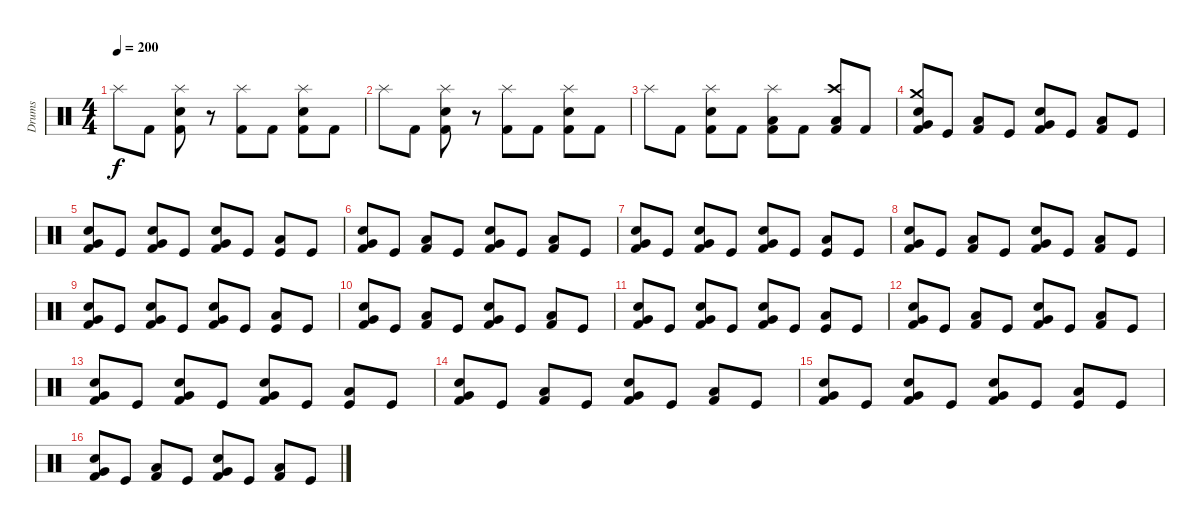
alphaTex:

\track ("Drums" "Drums") {instrument percussion}
\staff {score}
\articulation defaults
\ts (4 4)
\tempo 200
\clef neutral
\ks c "Splash (hit)".8{dy f} "Kick (hit) 2".8
("Splash (hit)" "Snare (hit) 2" "Kick (hit) 2").8 r.8 ("Splash (hit)" "Kick (hit) 2").8 "Kick (hit) 2".8 ("Splash (hit)" "Snare (hit) 2" "Kick (hit) 2").8 "Kick (hit) 2".8 |
"Splash (hit)".8 "Kick (hit) 2".8 ("Splash (hit)" "Snare (hit) 2" "Kick (hit) 2").8 r.8 ("Splash (hit)" "Kick (hit) 2").8 "Kick (hit) 2".8 ("Splash (hit)" "Snare (hit) 2" "Kick (hit) 2").8 "Kick (hit) 2".8 |
"Splash (hit)".8 "Kick (hit) 2".8 ("Splash (hit)" "Snare (hit) 2" "Kick (hit) 2").8 "Kick (hit) 2".8 ("Splash (hit)" "Low Tom (hit)" "Kick (hit) 2").8 "Kick (hit) 2".8 ("Crash high (hit)" "Low Floor Tom (hit)" "Kick (hit) 2").8 "Kick (hit) 2".8 |
("Crash medium (hit)" "Snare (hit) 2" "Very Low Tom (hit)" "Kick (hit) 2").8 "Kick (hit)".8 ("Low Floor Tom (hit)" "Kick (hit) 2").8 "Kick (hit)".8 ("Snare (hit) 2" "Very Low Tom (hit)" "Kick (hit) 2").8 "Kick (hit)".8 ("Low Floor Tom (hit)" "Kick (hit) 2").8 "Kick (hit)".8 |
("Snare (hit) 2" "Very Low Tom (hit)" "Kick (hit) 2").8 "Kick (hit)".8 ("Snare (hit) 2" "Very Low Tom (hit)" "Kick (hit) 2").8 "Kick (hit)".8 ("Snare (hit) 2" "Very Low Tom (hit)" "Kick (hit) 2").8 "Kick (hit)".8 ("Low Floor Tom (hit)" "Kick (hit)").8 "Kick (hit)".8 |
("Snare (hit) 2" "Very Low Tom (hit)" "Kick (hit) 2").8 "Kick (hit)".8 ("Low Floor Tom (hit)" "Kick (hit) 2").8 "Kick (hit)".8 ("Snare (hit) 2" "Very Low Tom (hit)" "Kick (hit) 2").8 "Kick (hit)".8 ("Low Floor Tom (hit)" "Kick (hit) 2").8 "Kick (hit)".8 |
("Snare (hit) 2" "Very Low Tom (hit)" "Kick (hit) 2").8 "Kick (hit)".8 ("Snare (hit) 2" "Very Low Tom (hit)" "Kick (hit) 2").8 "Kick (hit)".8 ("Snare (hit) 2" "Very Low Tom (hit)" "Kick (hit) 2").8 "Kick (hit)".8 ("Low Floor Tom (hit)" "Kick (hit)").8 "Kick (hit)".8 |
("Snare (hit) 2" "Very Low Tom (hit)" "Kick (hit) 2").8 "Kick (hit)".8 ("Low Floor Tom (hit)" "Kick (hit) 2").8 "Kick (hit)".8 ("Snare (hit) 2" "Very Low Tom (hit)" "Kick (hit) 2").8 "Kick (hit)".8 ("Low Floor Tom (hit)" "Kick (hit) 2").8 "Kick (hit)".8 |
("Snare (hit) 2" "Very Low Tom (hit)" "Kick (hit) 2").8 "Kick (hit)".8 ("Snare (hit) 2" "Very Low Tom (hit)" "Kick (hit) 2").8 "Kick (hit)".8 ("Snare (hit) 2" "Very Low Tom (hit)" "Kick (hit) 2").8 "Kick (hit)".8 ("Low Floor Tom (hit)" "Kick (hit)").8 "Kick (hit)".8 |
("Snare (hit) 2" "Very Low Tom (hit)" "Kick (hit) 2").8 "Kick (hit)".8 ("Low Floor Tom (hit)" "Kick (hit) 2").8 "Kick (hit)".8 ("Snare (hit) 2" "Very Low Tom (hit)" "Kick (hit) 2").8 "Kick (hit)".8 ("Low Floor Tom (hit)" "Kick (hit) 2").8 "Kick (hit)".8 |
("Snare (hit) 2" "Very Low Tom (hit)" "Kick (hit) 2").8 "Kick (hit)".8 ("Snare (hit) 2" "Very Low Tom (hit)" "Kick (hit) 2").8 "Kick (hit)".8 ("Snare (hit) 2" "Very Low Tom (hit)" "Kick (hit) 2").8 "Kick (hit)".8 ("Low Floor Tom (hit)" "Kick (hit)").8 "Kick (hit)".8 |
("Snare (hit) 2" "Very Low Tom (hit)" "Kick (hit) 2").8 "Kick (hit)".8 ("Low Floor Tom (hit)" "Kick (hit) 2").8 "Kick (hit)".8 ("Snare (hit) 2" "Very Low Tom (hit)" "Kick (hit) 2").8 "Kick (hit)".8 ("Low Floor Tom (hit)" "Kick (hit) 2").8 "Kick (hit)".8 |
("Snare (hit) 2" "Very Low Tom (hit)" "Kick (hit) 2").8 "Kick (hit)".8 ("Snare (hit) 2" "Very Low Tom (hit)" "Kick (hit) 2").8 "Kick (hit)".8 ("Snare (hit) 2" "Very Low Tom (hit)" "Kick (hit) 2").8 "Kick (hit)".8 ("Low Floor Tom (hit)" "Kick (hit)").8 "Kick (hit)".8 |
("Snare (hit) 2" "Very Low Tom (hit)" "Kick (hit) 2").8 "Kick (hit)".8 ("Low Floor Tom (hit)" "Kick (hit) 2").8 "Kick (hit)".8 ("Snare (hit) 2" "Very Low Tom (hit)" "Kick (hit) 2").8 "Kick (hit)".8 ("Low Floor Tom (hit)" "Kick (hit) 2").8 "Kick (hit)".8 |
("Snare (hit) 2" "Very Low Tom (hit)" "Kick (hit) 2").8 "Kick (hit)".8 ("Snare (hit) 2" "Very Low Tom (hit)" "Kick (hit) 2").8 "Kick (hit)".8 ("Snare (hit) 2" "Very Low Tom (hit)" "Kick (hit) 2").8 "Kick (hit)".8 ("Low Floor Tom (hit)" "Kick (hit)").8 "Kick (hit)".8 |
("Snare (hit) 2" "Very Low Tom (hit)" "Kick (hit) 2").8 "Kick (hit)".8 ("Low Floor Tom (hit)" "Kick (hit) 2").8 "Kick (hit)".8 ("Snare (hit) 2" "Very Low Tom (hit)" "Kick (hit) 2").8 "Kick (hit)".8 ("Low Floor Tom (hit)" "Kick (hit) 2").8 "Kick (hit)".8
